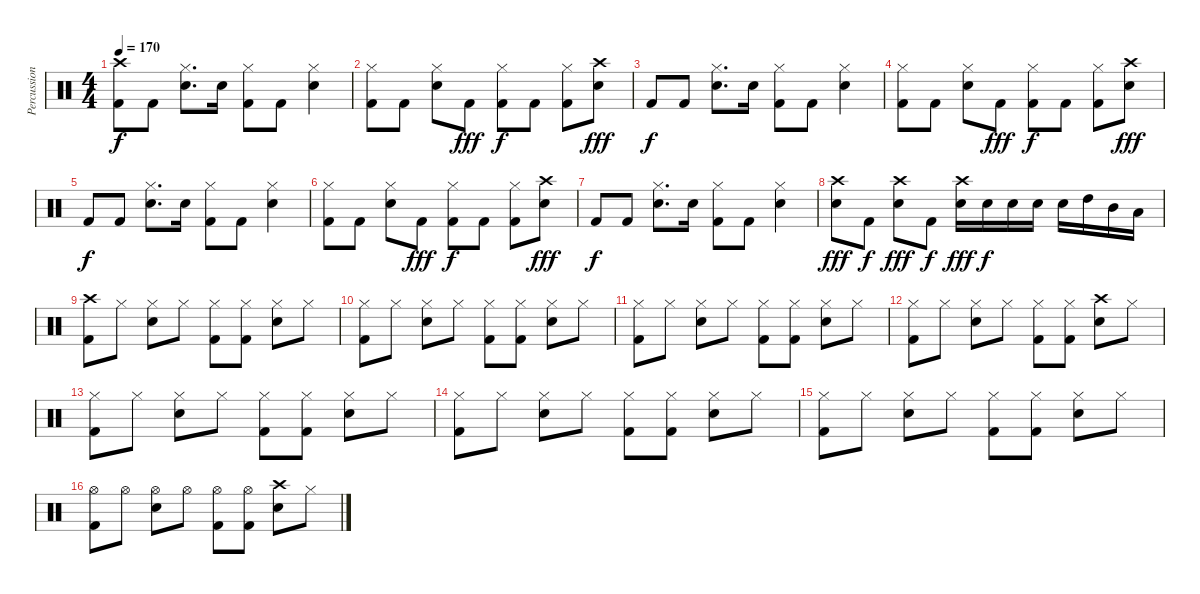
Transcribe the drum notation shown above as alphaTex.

\track ("Percussion" "Percussion") {instrument percussion}
\staff {score}
\articulation defaults
\ts (4 4)
\tempo 170
\clef neutral
\ks c
("Crash high (hit)" "Kick (hit) 2").8{dy f} "Kick (hit) 2".8 ("Hi-Hat (closed)" "Electric Snare (hit)").8{d} "Electric Snare (hit)".16 ("Hi-Hat (closed)" "Kick (hit) 2").8 "Kick (hit) 2".8 ("Hi-Hat (closed)" "Electric Snare (hit)").4 |
("Hi-Hat (closed)" "Kick (hit) 2").8 "Kick (hit) 2".8 ("Hi-Hat (closed)" "Electric Snare (hit)").8 "Kick (hit) 2".8{dy fff} ("Hi-Hat (closed)" "Kick (hit) 2").8{dy f} "Kick (hit) 2".8 ("Hi-Hat (closed)" "Kick (hit) 2").8 ("Crash high (hit)" "Electric Snare (hit)").8{dy fff} |
"Kick (hit) 2".8{dy f} "Kick (hit) 2".8 ("Hi-Hat (closed)" "Electric Snare (hit)").8{d} "Electric Snare (hit)".16 ("Hi-Hat (closed)" "Kick (hit) 2").8 "Kick (hit) 2".8 ("Hi-Hat (closed)" "Electric Snare (hit)").4 |
("Hi-Hat (closed)" "Kick (hit) 2").8 "Kick (hit) 2".8 ("Hi-Hat (closed)" "Electric Snare (hit)").8 "Kick (hit) 2".8{dy fff} ("Hi-Hat (closed)" "Kick (hit) 2").8{dy f} "Kick (hit) 2".8 ("Hi-Hat (closed)" "Kick (hit) 2").8 ("Crash high (hit)" "Electric Snare (hit)").8{dy fff} |
"Kick (hit) 2".8{dy f} "Kick (hit) 2".8 ("Hi-Hat (closed)" "Electric Snare (hit)").8{d} "Electric Snare (hit)".16 ("Hi-Hat (closed)" "Kick (hit) 2").8 "Kick (hit) 2".8 ("Hi-Hat (closed)" "Electric Snare (hit)").4 |
("Hi-Hat (closed)" "Kick (hit) 2").8 "Kick (hit) 2".8 ("Hi-Hat (closed)" "Electric Snare (hit)").8 "Kick (hit) 2".8{dy fff} ("Hi-Hat (closed)" "Kick (hit) 2").8{dy f} "Kick (hit) 2".8 ("Hi-Hat (closed)" "Kick (hit) 2").8 ("Crash high (hit)" "Electric Snare (hit)").8{dy fff} |
"Kick (hit) 2".8{dy f} "Kick (hit) 2".8 ("Hi-Hat (closed)" "Electric Snare (hit)").8{d} "Electric Snare (hit)".16 ("Hi-Hat (closed)" "Kick (hit) 2").8 "Kick (hit) 2".8 ("Hi-Hat (closed)" "Electric Snare (hit)").4 |
("Crash high (hit)" "Electric Snare (hit)").8{dy fff} "Kick (hit) 2".8{dy f} ("Crash high (hit)" "Electric Snare (hit)").8{dy fff} "Kick (hit) 2".8{dy f} ("Crash high (hit)" "Electric Snare (hit)").16{dy fff} "Electric Snare (hit)".16{dy f} "Electric Snare (hit)".16 "Electric Snare (hit)".16 "Electric Snare (hit)".16 "High Tom (hit)".16 "Mid Tom (hit)".16 "Low Tom (hit)".16 |
("Crash high (hit)" "Kick (hit) 2").8 "Hi-Hat (closed)".8 ("Hi-Hat (closed)" "Electric Snare (hit)").8 "Hi-Hat (closed)".8 ("Hi-Hat (closed)" "Kick (hit) 2").8 ("Hi-Hat (closed)" "Kick (hit) 2").8 ("Hi-Hat (closed)" "Electric Snare (hit)").8 "Hi-Hat (closed)".8 |
("Hi-Hat (closed)" "Kick (hit) 2").8 "Hi-Hat (closed)".8 ("Hi-Hat (closed)" "Electric Snare (hit)").8 "Hi-Hat (closed)".8 ("Hi-Hat (closed)" "Kick (hit) 2").8 ("Hi-Hat (closed)" "Kick (hit) 2").8 ("Hi-Hat (closed)" "Electric Snare (hit)").8 "Hi-Hat (closed)".8 |
("Hi-Hat (closed)" "Kick (hit) 2").8 "Hi-Hat (closed)".8 ("Hi-Hat (closed)" "Electric Snare (hit)").8 "Hi-Hat (closed)".8 ("Hi-Hat (closed)" "Kick (hit) 2").8 ("Hi-Hat (closed)" "Kick (hit) 2").8 ("Hi-Hat (closed)" "Electric Snare (hit)").8 "Hi-Hat (closed)".8 |
("Hi-Hat (closed)" "Kick (hit) 2").8 "Hi-Hat (closed)".8 ("Hi-Hat (closed)" "Electric Snare (hit)").8 "Hi-Hat (closed)".8 ("Hi-Hat (closed)" "Kick (hit) 2").8 ("Hi-Hat (closed)" "Kick (hit) 2").8 ("Crash high (hit)" "Electric Snare (hit)").8 "Hi-Hat (closed)".8 |
("Hi-Hat (closed)" "Kick (hit) 2").8 "Hi-Hat (closed)".8 ("Hi-Hat (closed)" "Electric Snare (hit)").8 "Hi-Hat (closed)".8 ("Hi-Hat (closed)" "Kick (hit) 2").8 ("Hi-Hat (closed)" "Kick (hit) 2").8 ("Hi-Hat (closed)" "Electric Snare (hit)").8 "Hi-Hat (closed)".8 |
("Hi-Hat (closed)" "Kick (hit) 2").8 "Hi-Hat (closed)".8 ("Hi-Hat (closed)" "Electric Snare (hit)").8 "Hi-Hat (closed)".8 ("Hi-Hat (closed)" "Kick (hit) 2").8 ("Hi-Hat (closed)" "Kick (hit) 2").8 ("Hi-Hat (closed)" "Electric Snare (hit)").8 "Hi-Hat (closed)".8 |
("Hi-Hat (closed)" "Kick (hit) 2").8 "Hi-Hat (closed)".8 ("Hi-Hat (closed)" "Electric Snare (hit)").8 "Hi-Hat (closed)".8 ("Hi-Hat (closed)" "Kick (hit) 2").8 ("Hi-Hat (closed)" "Kick (hit) 2").8 ("Hi-Hat (closed)" "Electric Snare (hit)").8 "Hi-Hat (closed)".8 |
("Hi-Hat (open)" "Kick (hit) 2").8 "Hi-Hat (open)".8 ("Hi-Hat (open)" "Electric Snare (hit)").8 "Hi-Hat (open)".8 ("Hi-Hat (open)" "Kick (hit) 2").8 ("Hi-Hat (open)" "Kick (hit) 2").8 ("Crash high (hit)" "Electric Snare (hit)").8 "Hi-Hat (closed)".8
